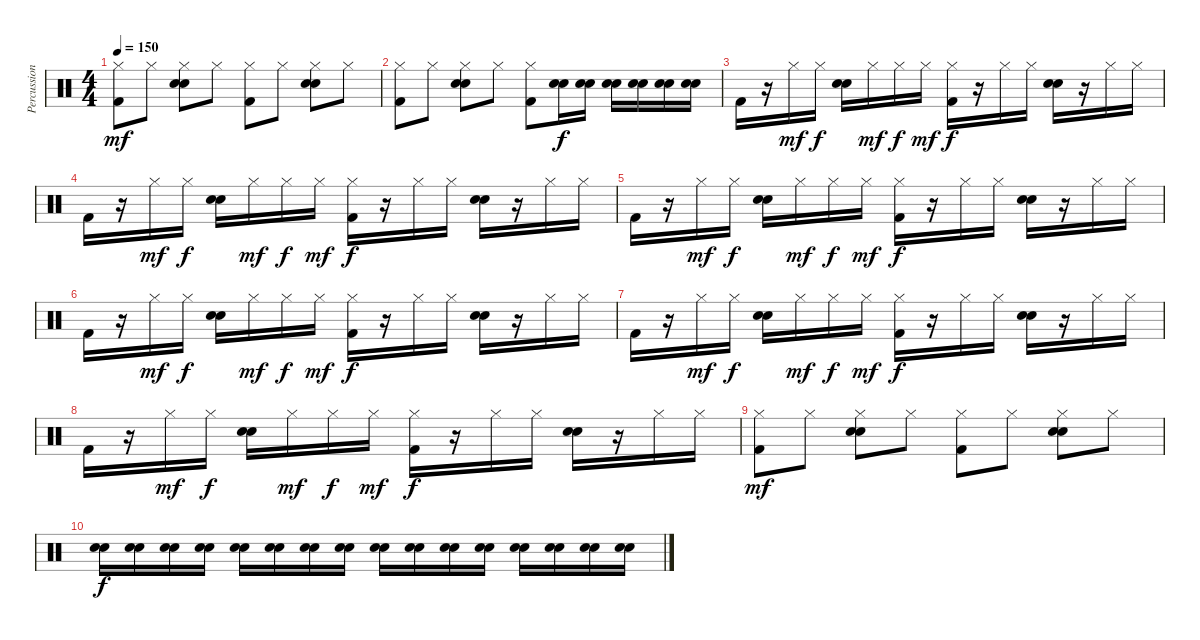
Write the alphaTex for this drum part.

\track ("Percussions" "Percussion") {instrument percussion}
\staff {score}
\articulation defaults
\ts (4 4)
\tempo 150
\clef neutral
\ks c
("Kick (hit) 2" "Hi-Hat (closed)").8{dy mf} "Hi-Hat (closed)".8 ("Snare (hit) 2" "Electric Snare (hit)" "Hi-Hat (closed)").8 "Hi-Hat (closed)".8 ("Kick (hit) 2" "Hi-Hat (closed)").8 "Hi-Hat (closed)".8 ("Snare (hit) 2" "Electric Snare (hit)" "Hi-Hat (closed)").8 "Hi-Hat (closed)".8 |
("Kick (hit) 2" "Hi-Hat (closed)").8 "Hi-Hat (closed)".8 ("Snare (hit) 2" "Electric Snare (hit)" "Hi-Hat (closed)").8 "Hi-Hat (closed)".8 ("Kick (hit) 2" "Hi-Hat (closed)").8 ("Snare (hit) 2" "Electric Snare (hit)").16{dy f} ("Snare (hit) 2" "Electric Snare (hit)").16 ("Snare (hit) 2" "Electric Snare (hit)").16 ("Snare (hit) 2" "Electric Snare (hit)").16 ("Snare (hit) 2" "Electric Snare (hit)").16 ("Snare (hit) 2" "Electric Snare (hit)").16 |
"Kick (hit) 2".16 r.16 "Hi-Hat (closed)".16{dy mf} "Hi-Hat (closed)".16{dy f} ("Electric Snare (hit)" "Snare (hit) 2").16 "Hi-Hat (closed)".16{dy mf} "Hi-Hat (closed)".16{dy f} "Hi-Hat (closed)".16{dy mf} ("Kick (hit) 2" "Hi-Hat (closed)").16{dy f} r.16 "Hi-Hat (closed)".16 "Hi-Hat (closed)".16 ("Snare (hit) 2" "Electric Snare (hit)").16 r.16 "Hi-Hat (closed)".16 "Hi-Hat (closed)".16 |
"Kick (hit) 2".16 r.16 "Hi-Hat (closed)".16{dy mf} "Hi-Hat (closed)".16{dy f} ("Electric Snare (hit)" "Snare (hit) 2").16 "Hi-Hat (closed)".16{dy mf} "Hi-Hat (closed)".16{dy f} "Hi-Hat (closed)".16{dy mf} ("Kick (hit) 2" "Hi-Hat (closed)").16{dy f} r.16 "Hi-Hat (closed)".16 "Hi-Hat (closed)".16 ("Snare (hit) 2" "Electric Snare (hit)").16 r.16 "Hi-Hat (closed)".16 "Hi-Hat (closed)".16 |
"Kick (hit) 2".16 r.16 "Hi-Hat (closed)".16{dy mf} "Hi-Hat (closed)".16{dy f} ("Electric Snare (hit)" "Snare (hit) 2").16 "Hi-Hat (closed)".16{dy mf} "Hi-Hat (closed)".16{dy f} "Hi-Hat (closed)".16{dy mf} ("Kick (hit) 2" "Hi-Hat (closed)").16{dy f} r.16 "Hi-Hat (closed)".16 "Hi-Hat (closed)".16 ("Snare (hit) 2" "Electric Snare (hit)").16 r.16 "Hi-Hat (closed)".16 "Hi-Hat (closed)".16 |
"Kick (hit) 2".16 r.16 "Hi-Hat (closed)".16{dy mf} "Hi-Hat (closed)".16{dy f} ("Electric Snare (hit)" "Snare (hit) 2").16 "Hi-Hat (closed)".16{dy mf} "Hi-Hat (closed)".16{dy f} "Hi-Hat (closed)".16{dy mf} ("Kick (hit) 2" "Hi-Hat (closed)").16{dy f} r.16 "Hi-Hat (closed)".16 "Hi-Hat (closed)".16 ("Snare (hit) 2" "Electric Snare (hit)").16 r.16 "Hi-Hat (closed)".16 "Hi-Hat (closed)".16 |
"Kick (hit) 2".16 r.16 "Hi-Hat (closed)".16{dy mf} "Hi-Hat (closed)".16{dy f} ("Electric Snare (hit)" "Snare (hit) 2").16 "Hi-Hat (closed)".16{dy mf} "Hi-Hat (closed)".16{dy f} "Hi-Hat (closed)".16{dy mf} ("Kick (hit) 2" "Hi-Hat (closed)").16{dy f} r.16 "Hi-Hat (closed)".16 "Hi-Hat (closed)".16 ("Snare (hit) 2" "Electric Snare (hit)").16 r.16 "Hi-Hat (closed)".16 "Hi-Hat (closed)".16 |
"Kick (hit) 2".16 r.16 "Hi-Hat (closed)".16{dy mf} "Hi-Hat (closed)".16{dy f} ("Electric Snare (hit)" "Snare (hit) 2").16 "Hi-Hat (closed)".16{dy mf} "Hi-Hat (closed)".16{dy f} "Hi-Hat (closed)".16{dy mf} ("Kick (hit) 2" "Hi-Hat (closed)").16{dy f} r.16 "Hi-Hat (closed)".16 "Hi-Hat (closed)".16 ("Snare (hit) 2" "Electric Snare (hit)").16 r.16 "Hi-Hat (closed)".16 "Hi-Hat (closed)".16 |
("Kick (hit) 2" "Hi-Hat (closed)").8{dy mf} "Hi-Hat (closed)".8 ("Snare (hit) 2" "Electric Snare (hit)" "Hi-Hat (closed)").8 "Hi-Hat (closed)".8 ("Kick (hit) 2" "Hi-Hat (closed)").8 "Hi-Hat (closed)".8 ("Snare (hit) 2" "Electric Snare (hit)" "Hi-Hat (closed)").8 "Hi-Hat (closed)".8 |
("Electric Snare (hit)" "Snare (hit) 2").16{dy f} ("Electric Snare (hit)" "Snare (hit) 2").16 ("Electric Snare (hit)" "Snare (hit) 2").16 ("Electric Snare (hit)" "Snare (hit) 2").16 ("Electric Snare (hit)" "Snare (hit) 2").16 ("Electric Snare (hit)" "Snare (hit) 2").16 ("Electric Snare (hit)" "Snare (hit) 2").16 ("Electric Snare (hit)" "Snare (hit) 2").16 ("Electric Snare (hit)" "Snare (hit) 2").16 ("Electric Snare (hit)" "Snare (hit) 2").16 ("Electric Snare (hit)" "Snare (hit) 2").16 ("Electric Snare (hit)" "Snare (hit) 2").16 ("Electric Snare (hit)" "Snare (hit) 2").16 ("Electric Snare (hit)" "Snare (hit) 2").16 ("Electric Snare (hit)" "Snare (hit) 2").16 ("Electric Snare (hit)" "Snare (hit) 2").16
